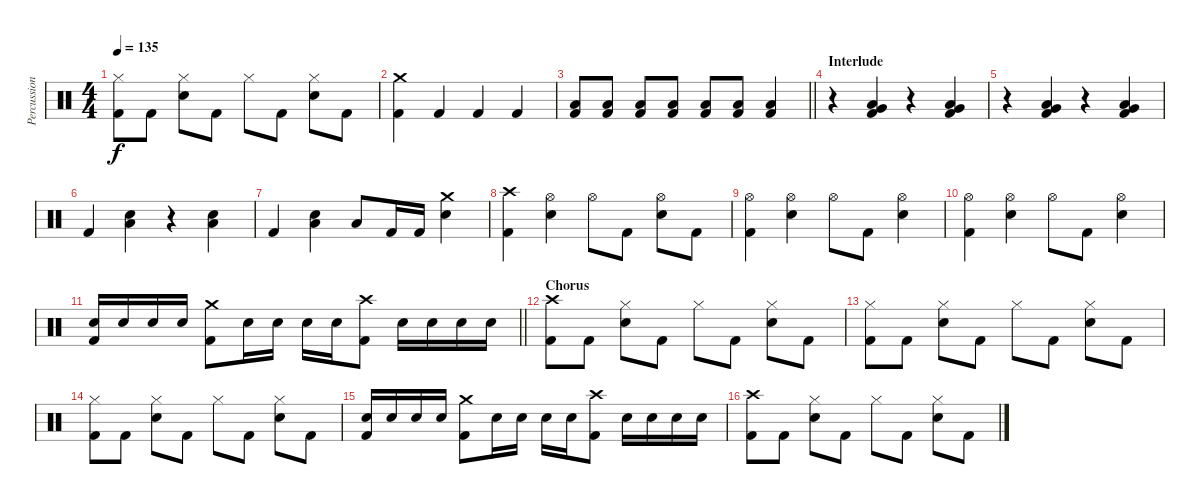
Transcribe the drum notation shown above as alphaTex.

\track ("Percussion" "Percussion") {instrument percussion}
\staff {score}
\articulation defaults
\ts (4 4)
\tempo 135
\clef neutral
\ks c
("Hi-Hat (closed)" "Kick (hit) 2").8{dy f} "Kick (hit) 2".8 ("Hi-Hat (closed)" "Electric Snare (hit)").8 "Kick (hit) 2".8 "Hi-Hat (closed)".8 "Kick (hit) 2".8 ("Hi-Hat (closed)" "Electric Snare (hit)").8 "Kick (hit) 2".8 |
("Crash medium (hit)" "Kick (hit) 2").4 "Kick (hit) 2".4 "Kick (hit) 2".4 "Kick (hit) 2".4 |
\barLineRight lightlight
("Low Tom (hit)" "Kick (hit) 2").8 ("Low Tom (hit)" "Kick (hit) 2").8 ("Low Tom (hit)" "Kick (hit) 2").8 ("Low Tom (hit)" "Kick (hit) 2").8 ("Low Tom (hit)" "Kick (hit) 2").8 ("Low Tom (hit)" "Kick (hit) 2").8 ("Low Tom (hit)" "Kick (hit) 2").4 |
\section ("" "Interlude")
r.4 ("Very Low Tom (hit)" "Low Floor Tom (hit)" "Kick (hit) 2").4 r.4 ("Very Low Tom (hit)" "Low Floor Tom (hit)" "Kick (hit) 2").4 |
r.4 ("Very Low Tom (hit)" "Low Floor Tom (hit)" "Kick (hit) 2").4 r.4 ("Very Low Tom (hit)" "Low Floor Tom (hit)" "Kick (hit) 2").4 |
"Kick (hit) 2".4 ("Electric Snare (hit)" "Low Floor Tom (hit)").4 r.4 ("Electric Snare (hit)" "Low Floor Tom (hit)").4 |
"Kick (hit) 2".4 ("Electric Snare (hit)" "Low Floor Tom (hit)").4 "Low Tom (hit)".8 "Kick (hit) 2".16 "Kick (hit) 2".16 ("Crash medium (hit)" "Electric Snare (hit)").4 |
("Crash high (hit)" "Kick (hit) 2").4 ("Hi-Hat (open)" "Electric Snare (hit)").4 "Hi-Hat (open)".8 "Kick (hit) 2".8 ("Hi-Hat (open)" "Electric Snare (hit)").8 "Kick (hit) 2".8 |
("Hi-Hat (open)" "Kick (hit) 2").4 ("Hi-Hat (open)" "Electric Snare (hit)").4 "Hi-Hat (open)".8 "Kick (hit) 2".8 ("Hi-Hat (open)" "Electric Snare (hit)").4 |
("Hi-Hat (open)" "Kick (hit) 2").4 ("Hi-Hat (open)" "Electric Snare (hit)").4 "Hi-Hat (open)".8 "Kick (hit) 2".8 ("Hi-Hat (open)" "Electric Snare (hit)").4 |
\barLineRight lightlight
("Electric Snare (hit)" "Kick (hit) 2").16 "Electric Snare (hit)".16 "Electric Snare (hit)".16 "Electric Snare (hit)".16 ("Crash medium (hit)" "Kick (hit) 2").8 "Electric Snare (hit)".16 "Electric Snare (hit)".16 "Electric Snare (hit)".16 "Electric Snare (hit)".16 ("Crash high (hit)" "Kick (hit) 2").8 "Electric Snare (hit)".16 "Electric Snare (hit)".16 "Electric Snare (hit)".16 "Electric Snare (hit)".16 |
\section ("" "Chorus")
("Crash high (hit)" "Kick (hit) 2").8 "Kick (hit) 2".8 ("Hi-Hat (closed)" "Electric Snare (hit)").8 "Kick (hit) 2".8 "Hi-Hat (closed)".8 "Kick (hit) 2".8 ("Hi-Hat (closed)" "Electric Snare (hit)").8 "Kick (hit) 2".8 |
("Hi-Hat (closed)" "Kick (hit) 2").8 "Kick (hit) 2".8 ("Hi-Hat (closed)" "Electric Snare (hit)").8 "Kick (hit) 2".8 "Hi-Hat (closed)".8 "Kick (hit) 2".8 ("Hi-Hat (closed)" "Electric Snare (hit)").8 "Kick (hit) 2".8 |
("Hi-Hat (closed)" "Kick (hit) 2").8 "Kick (hit) 2".8 ("Hi-Hat (closed)" "Electric Snare (hit)").8 "Kick (hit) 2".8 "Hi-Hat (closed)".8 "Kick (hit) 2".8 ("Hi-Hat (closed)" "Electric Snare (hit)").8 "Kick (hit) 2".8 |
("Electric Snare (hit)" "Kick (hit) 2").16 "Electric Snare (hit)".16 "Electric Snare (hit)".16 "Electric Snare (hit)".16 ("Crash medium (hit)" "Kick (hit) 2").8 "Electric Snare (hit)".16 "Electric Snare (hit)".16 "Electric Snare (hit)".16 "Electric Snare (hit)".16 ("Crash high (hit)" "Kick (hit) 2").8 "Electric Snare (hit)".16 "Electric Snare (hit)".16 "Electric Snare (hit)".16 "Electric Snare (hit)".16 |
("Crash high (hit)" "Kick (hit) 2").8 "Kick (hit) 2".8 ("Hi-Hat (closed)" "Electric Snare (hit)").8 "Kick (hit) 2".8 "Hi-Hat (closed)".8 "Kick (hit) 2".8 ("Hi-Hat (closed)" "Electric Snare (hit)").8 "Kick (hit) 2".8
